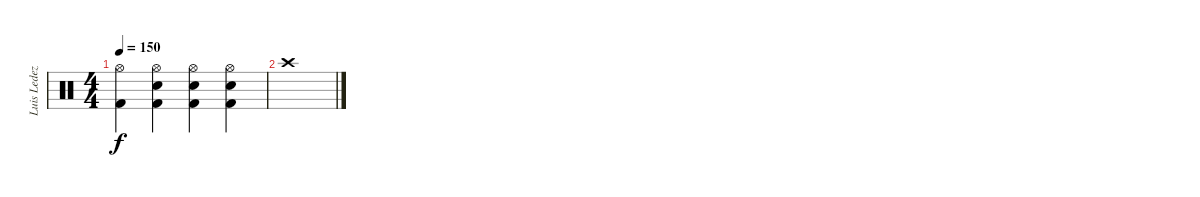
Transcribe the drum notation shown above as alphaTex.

\track ("Luis Ledezma" "Luis Ledez") {instrument percussion}
\staff {score}
\articulation defaults
\ts (4 4)
\tempo 150
\clef neutral
\ks c
("Hi-Hat (open)" "Kick (hit) 2").4{dy f} ("Hi-Hat (open)" "Electric Snare (hit)" "Kick (hit) 2").4 ("Hi-Hat (open)" "Electric Snare (hit)" "Kick (hit) 2").4 ("Hi-Hat (open)" "Electric Snare (hit)" "Kick (hit) 2").4 |
"Crash high (hit)".1
